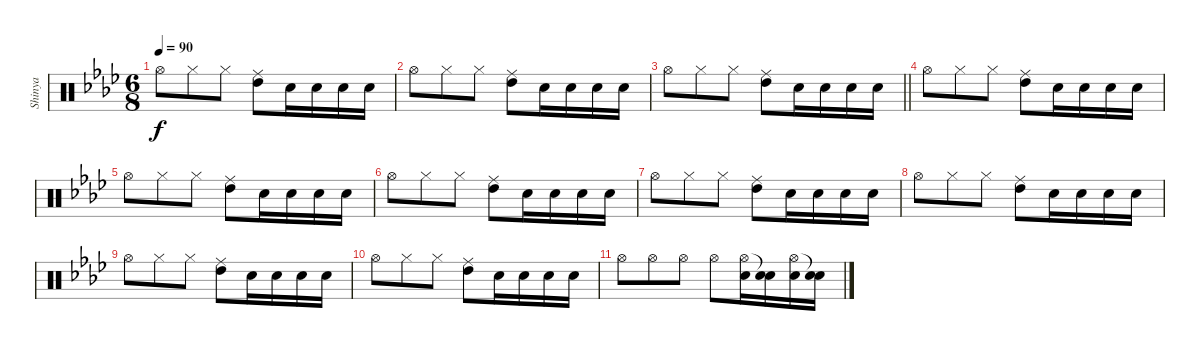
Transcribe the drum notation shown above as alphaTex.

\track ("Shinya" "Shinya") {instrument percussion}
\staff {score}
\articulation defaults
\ts (6 8)
\tempo 90
\clef neutral
\ks fminor "Hi-Hat (open)".8{dy f} "Hi-Hat (closed)".8 "Hi-Hat (closed)".8
("Ride (middle)" "High Tom (hit)").8 "Snare (hit) 2".16 "Snare (hit) 2".16 "Snare (hit) 2".16 "Snare (hit) 2".16 |
"Hi-Hat (open)".8 "Hi-Hat (closed)".8 "Hi-Hat (closed)".8 ("Ride (middle)" "High Tom (hit)").8 "Snare (hit) 2".16 "Snare (hit) 2".16 "Snare (hit) 2".16 "Snare (hit) 2".16 |
\barLineRight lightlight "Hi-Hat (open)".8 "Hi-Hat (closed)".8 "Hi-Hat (closed)".8
("Ride (middle)" "High Tom (hit)").8 "Snare (hit) 2".16 "Snare (hit) 2".16 "Snare (hit) 2".16 "Snare (hit) 2".16 |
"Hi-Hat (open)".8 "Hi-Hat (closed)".8 "Hi-Hat (closed)".8 ("Ride (middle)" "High Tom (hit)").8 "Snare (hit) 2".16 "Snare (hit) 2".16 "Snare (hit) 2".16 "Snare (hit) 2".16 |
"Hi-Hat (open)".8 "Hi-Hat (closed)".8 "Hi-Hat (closed)".8 ("Ride (middle)" "High Tom (hit)").8 "Snare (hit) 2".16 "Snare (hit) 2".16 "Snare (hit) 2".16 "Snare (hit) 2".16 |
"Hi-Hat (open)".8 "Hi-Hat (closed)".8 "Hi-Hat (closed)".8 ("Ride (middle)" "High Tom (hit)").8 "Snare (hit) 2".16 "Snare (hit) 2".16 "Snare (hit) 2".16 "Snare (hit) 2".16 |
"Hi-Hat (open)".8 "Hi-Hat (closed)".8 "Hi-Hat (closed)".8 ("Ride (middle)" "High Tom (hit)").8 "Snare (hit) 2".16 "Snare (hit) 2".16 "Snare (hit) 2".16 "Snare (hit) 2".16 |
"Hi-Hat (open)".8 "Hi-Hat (closed)".8 "Hi-Hat (closed)".8 ("Ride (middle)" "High Tom (hit)").8 "Snare (hit) 2".16 "Snare (hit) 2".16 "Snare (hit) 2".16 "Snare (hit) 2".16 |
"Hi-Hat (open)".8 "Hi-Hat (closed)".8 "Hi-Hat (closed)".8 ("Ride (middle)" "High Tom (hit)").8 "Snare (hit) 2".16 "Snare (hit) 2".16 "Snare (hit) 2".16 "Snare (hit) 2".16 |
"Hi-Hat (open)".8 "Hi-Hat (closed)".8 "Hi-Hat (closed)".8 ("Ride (middle)" "High Tom (hit)").8 "Snare (hit) 2".16 "Snare (hit) 2".16 "Snare (hit) 2".16 "Snare (hit) 2".16 |
"Hi-Hat (open)".8 "Hi-Hat (open)".8 "Hi-Hat (open)".8 "Hi-Hat (open)".8 ("Hi-Hat (open)" "Snare (hit) 2").16 ("Snare (hit)"{t} "Snare (hit) 2").16 ("Hi-Hat (open)" "Snare (hit) 2").16 ("Snare (hit)"{t} "Snare (hit) 2").16
